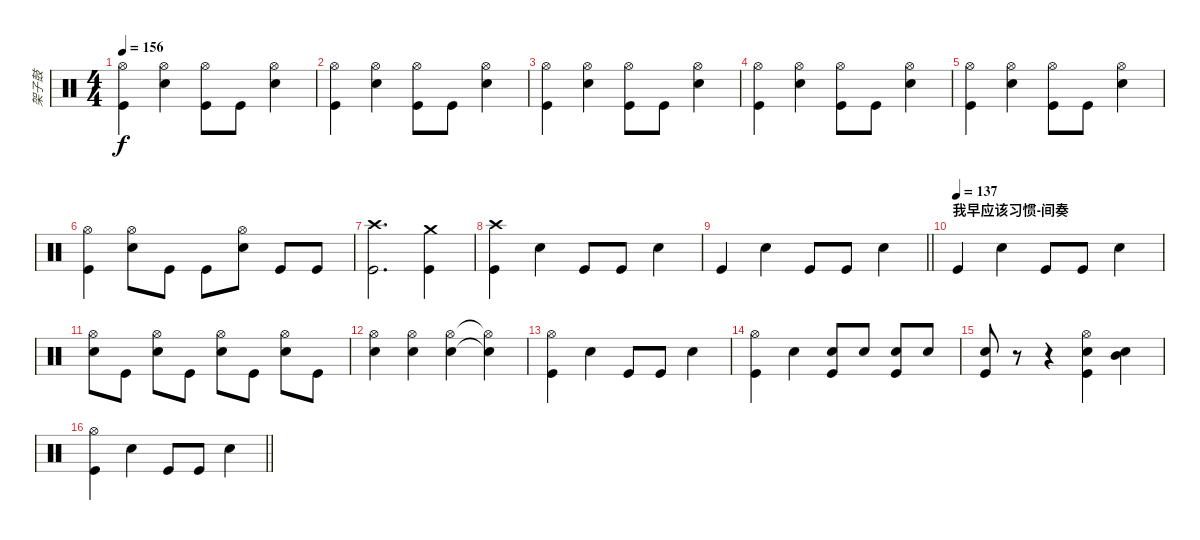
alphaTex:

\track ("架子鼓" "架子鼓") {instrument percussion}
\staff {score}
\articulation defaults
\ts (4 4)
\tempo 156
\clef neutral
\ks c
("Hi-Hat (open)" "Kick (hit)").4{dy f} ("Hi-Hat (open)" "Electric Snare (hit)").4 ("Hi-Hat (open)" "Kick (hit)").8 "Kick (hit)".8 ("Hi-Hat (open)" "Electric Snare (hit)").4 |
("Hi-Hat (open)" "Kick (hit)").4 ("Hi-Hat (open)" "Electric Snare (hit)").4 ("Hi-Hat (open)" "Kick (hit)").8 "Kick (hit)".8 ("Hi-Hat (open)" "Electric Snare (hit)").4 |
("Hi-Hat (open)" "Kick (hit)").4 ("Hi-Hat (open)" "Electric Snare (hit)").4 ("Hi-Hat (open)" "Kick (hit)").8 "Kick (hit)".8 ("Hi-Hat (open)" "Electric Snare (hit)").4 |
("Hi-Hat (open)" "Kick (hit)").4 ("Hi-Hat (open)" "Electric Snare (hit)").4 ("Hi-Hat (open)" "Kick (hit)").8 "Kick (hit)".8 ("Hi-Hat (open)" "Electric Snare (hit)").4 |
("Hi-Hat (open)" "Kick (hit)").4 ("Hi-Hat (open)" "Electric Snare (hit)").4 ("Hi-Hat (open)" "Kick (hit)").8 "Kick (hit)".8 ("Hi-Hat (open)" "Electric Snare (hit)").4 |
("Hi-Hat (open)" "Kick (hit)").4 ("Hi-Hat (open)" "Electric Snare (hit)").8 "Kick (hit)".8 "Kick (hit)".8 ("Hi-Hat (open)" "Electric Snare (hit)").8 "Kick (hit)".8 "Kick (hit)".8 |
("Crash high (hit)" "Kick (hit)").2{d} ("Crash medium (hit)" "Kick (hit)").4 |
("Crash high (hit)" "Kick (hit)").4 "Electric Snare (hit)".4 "Kick (hit)".8 "Kick (hit)".8 "Electric Snare (hit)".4 |
\barLineRight lightlight "Kick (hit)".4 "Electric Snare (hit)".4 "Kick (hit)".8 "Kick (hit)".8 "Electric Snare (hit)".4
|
\section ("" "我早应该习惯-间奏")
\tempo (137)
"Kick (hit)".4 "Electric Snare (hit)".4 "Kick (hit)".8 "Kick (hit)".8 "Electric Snare (hit)".4 |
("Hi-Hat (open)" "Electric Snare (hit)").8 "Kick (hit)".8 ("Hi-Hat (open)" "Electric Snare (hit)").8 "Kick (hit)".8 ("Hi-Hat (open)" "Electric Snare (hit)").8 "Kick (hit)".8 ("Hi-Hat (open)" "Electric Snare (hit)").8 "Kick (hit)".8 |
("Hi-Hat (open)" "Electric Snare (hit)").4 ("Hi-Hat (open)" "Electric Snare (hit)").4 ("Hi-Hat (open)" "Electric Snare (hit)").4 ("Hi-Hat (open)"{t} "Snare (hit) 2"{t}).4 |
("Hi-Hat (open)" "Kick (hit)").4 "Electric Snare (hit)".4 "Kick (hit)".8 "Kick (hit)".8 "Electric Snare (hit)".4 |
("Hi-Hat (open)" "Kick (hit)").4 "Electric Snare (hit)".4 ("Electric Snare (hit)" "Kick (hit)").8 "Electric Snare (hit)".8 ("Electric Snare (hit)" "Kick (hit)").8 "Electric Snare (hit)".8 |
("Electric Snare (hit)" "Kick (hit)").8 r.8 r.4 ("Hi-Hat (open)" "Electric Snare (hit)" "Kick (hit)").4 ("Mid Tom (hit)" "Electric Snare (hit)").4 |
\barLineRight lightlight
("Hi-Hat (open)" "Kick (hit)").4 "Electric Snare (hit)".4 "Kick (hit)".8 "Kick (hit)".8 "Electric Snare (hit)".4
